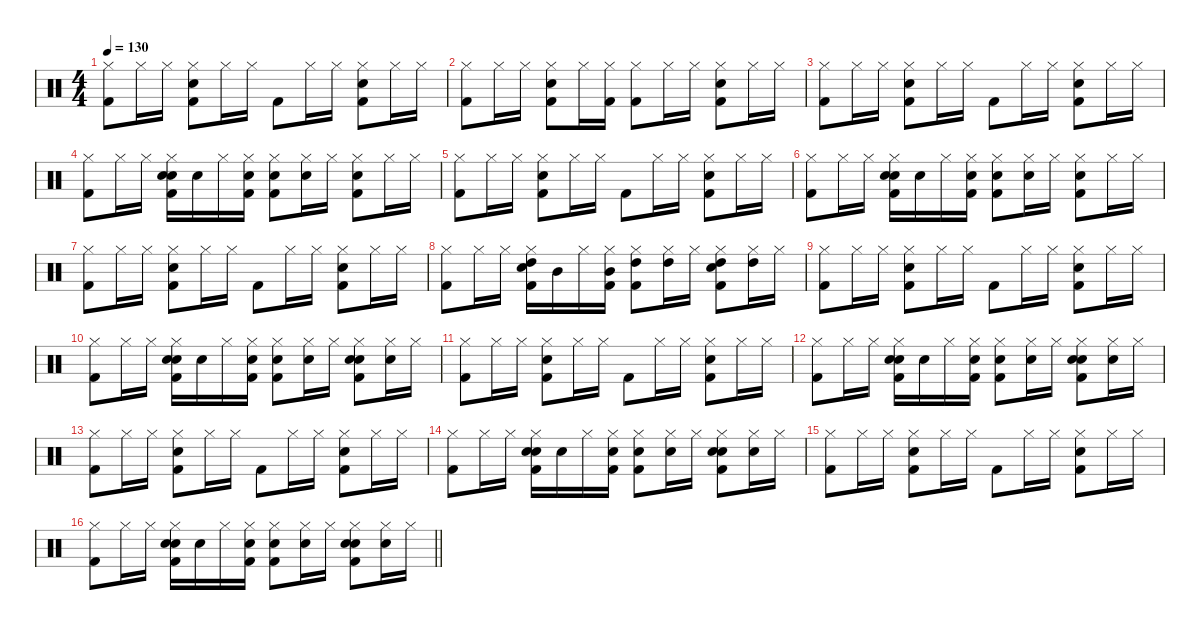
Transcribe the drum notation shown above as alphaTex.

\defaultSystemsLayout 4
\hideDynamics
\bracketExtendMode nobrackets
\singleTrackTrackNamePolicy hidden
\multiTrackTrackNamePolicy hidden
\otherSystemsTrackNameOrientation horizontal
\track ("Percussion" "drm.") {defaultSystemsLayout 4 instrument percussion}
\staff {score}
\articulation defaults
\ts (4 4)
\tempo 130
\clef neutral
\ks c
("Hi-Hat (closed)" "Kick (hit) 2").8{dy f beam Down} "Hi-Hat (closed)".16{beam Down} "Hi-Hat (closed)".16{beam Down} ("Hi-Hat (closed)" "Snare (hit) 2" "Kick (hit) 2").8{beam Down} "Hi-Hat (closed)".16{beam Down} "Hi-Hat (closed)".16{beam Down} "Kick (hit) 2".8{beam Down} "Hi-Hat (closed)".16{beam Down} "Hi-Hat (closed)".16{beam Down} ("Hi-Hat (closed)" "Snare (hit) 2" "Kick (hit) 2").8{beam Down} "Hi-Hat (closed)".16{beam Down} "Hi-Hat (closed)".16{beam Down} |
("Hi-Hat (closed)" "Kick (hit) 2").8{beam Down} "Hi-Hat (closed)".16{beam Down} "Hi-Hat (closed)".16{beam Down} ("Hi-Hat (closed)" "Snare (hit) 2" "Kick (hit) 2").8{beam Down} "Hi-Hat (closed)".16{beam Down} ("Hi-Hat (closed)" "Kick (hit) 2").16{beam Down} ("Hi-Hat (closed)" "Kick (hit) 2").8{beam Down} "Hi-Hat (closed)".16{beam Down} "Hi-Hat (closed)".16{beam Down} ("Hi-Hat (closed)" "Snare (hit) 2" "Kick (hit) 2").8{beam Down} "Hi-Hat (closed)".16{beam Down} "Hi-Hat (closed)".16{beam Down} |
("Hi-Hat (closed)" "Kick (hit) 2").8{beam Down} "Hi-Hat (closed)".16{beam Down} "Hi-Hat (closed)".16{beam Down} ("Hi-Hat (closed)" "Snare (hit) 2" "Kick (hit) 2").8{beam Down} "Hi-Hat (closed)".16{beam Down} "Hi-Hat (closed)".16{beam Down} "Kick (hit) 2".8{beam Down} "Hi-Hat (closed)".16{beam Down} "Hi-Hat (closed)".16{beam Down} ("Hi-Hat (closed)" "Snare (hit) 2" "Kick (hit) 2").8{beam Down} "Hi-Hat (closed)".16{beam Down} "Hi-Hat (closed)".16{beam Down} |
("Hi-Hat (closed)" "Kick (hit) 2").8{beam Down} "Hi-Hat (closed)".16{beam Down} "Hi-Hat (closed)".16{beam Down} ("Hi-Hat (closed)" "Hand Clap (hit)" "Snare (hit) 2" "Kick (hit) 2").16{beam Down} "Hand Clap (hit)".16{beam Down} "Hi-Hat (closed)".16{beam Down} ("Hi-Hat (closed)" "Hand Clap (hit)" "Kick (hit) 2").16{beam Down} ("Hi-Hat (closed)" "Hand Clap (hit)" "Kick (hit) 2").8{beam Down} ("Hi-Hat (closed)" "Hand Clap (hit)").16{beam Down} "Hi-Hat (closed)".16{beam Down} ("Hi-Hat (closed)" "Snare (hit) 2" "Kick (hit) 2").8{beam Down} "Hi-Hat (closed)".16{beam Down} "Hi-Hat (closed)".16{beam Down} |
("Hi-Hat (closed)" "Kick (hit) 2").8{beam Down} "Hi-Hat (closed)".16{beam Down} "Hi-Hat (closed)".16{beam Down} ("Hi-Hat (closed)" "Snare (hit) 2" "Kick (hit) 2").8{beam Down} "Hi-Hat (closed)".16{beam Down} "Hi-Hat (closed)".16{beam Down} "Kick (hit) 2".8{beam Down} "Hi-Hat (closed)".16{beam Down} "Hi-Hat (closed)".16{beam Down} ("Hi-Hat (closed)" "Snare (hit) 2" "Kick (hit) 2").8{beam Down} "Hi-Hat (closed)".16{beam Down} "Hi-Hat (closed)".16{beam Down} |
("Hi-Hat (closed)" "Kick (hit) 2").8{beam Down} "Hi-Hat (closed)".16{beam Down} "Hi-Hat (closed)".16{beam Down} ("Hi-Hat (closed)" "Hand Clap (hit)" "Snare (hit) 2" "Kick (hit) 2").16{beam Down} "Hand Clap (hit)".16{beam Down} "Hi-Hat (closed)".16{beam Down} ("Hi-Hat (closed)" "Hand Clap (hit)" "Kick (hit) 2").16{beam Down} ("Hi-Hat (closed)" "Hand Clap (hit)" "Kick (hit) 2").8{beam Down} ("Hi-Hat (closed)" "Hand Clap (hit)").16{beam Down} "Hi-Hat (closed)".16{beam Down} ("Hi-Hat (closed)" "Snare (hit) 2" "Kick (hit) 2").8{beam Down} "Hi-Hat (closed)".16{beam Down} "Hi-Hat (closed)".16{beam Down} |
("Hi-Hat (closed)" "Kick (hit) 2").8{beam Down} "Hi-Hat (closed)".16{beam Down} "Hi-Hat (closed)".16{beam Down} ("Hi-Hat (closed)" "Snare (hit) 2" "Kick (hit) 2").8{beam Down} "Hi-Hat (closed)".16{beam Down} "Hi-Hat (closed)".16{beam Down} "Kick (hit) 2".8{beam Down} "Hi-Hat (closed)".16{beam Down} "Hi-Hat (closed)".16{beam Down} ("Hi-Hat (closed)" "Snare (hit) 2" "Kick (hit) 2").8{beam Down} "Hi-Hat (closed)".16{beam Down} "Hi-Hat (closed)".16{beam Down} |
("Hi-Hat (closed)" "Kick (hit) 2").8{beam Down} "Hi-Hat (closed)".16{beam Down} "Hi-Hat (closed)".16{beam Down} ("Hi-Hat (closed)" "High Tom (hit)" "Snare (hit) 2" "Kick (hit) 2").16{beam Down} "Mid Tom (hit)".16{beam Down} "Hi-Hat (closed)".16{beam Down} ("Hi-Hat (closed)" "Mid Tom (hit)" "Kick (hit) 2").16{beam Down} ("Hi-Hat (closed)" "High Tom (hit)" "Kick (hit) 2").8{beam Down} ("Hi-Hat (closed)" "High Tom (hit)").16{beam Down} "Hi-Hat (closed)".16{beam Down} ("Hi-Hat (closed)" "High Tom (hit)" "Snare (hit) 2" "Kick (hit) 2").8{beam Down} ("Hi-Hat (closed)" "High Tom (hit)").16{beam Down} "Hi-Hat (closed)".16{beam Down} |
("Hi-Hat (closed)" "Kick (hit) 2").8{beam Down} "Hi-Hat (closed)".16{beam Down} "Hi-Hat (closed)".16{beam Down} ("Hi-Hat (closed)" "Snare (hit) 2" "Kick (hit) 2").8{beam Down} "Hi-Hat (closed)".16{beam Down} "Hi-Hat (closed)".16{beam Down} "Kick (hit) 2".8{beam Down} "Hi-Hat (closed)".16{beam Down} "Hi-Hat (closed)".16{beam Down} ("Hi-Hat (closed)" "Snare (hit) 2" "Kick (hit) 2").8{beam Down} "Hi-Hat (closed)".16{beam Down} "Hi-Hat (closed)".16{beam Down} |
("Hi-Hat (closed)" "Kick (hit) 2").8{beam Down} "Hi-Hat (closed)".16{beam Down} "Hi-Hat (closed)".16{beam Down} ("Hi-Hat (closed)" "Hand Clap (hit)" "Snare (hit) 2" "Kick (hit) 2").16{beam Down} "Hand Clap (hit)".16{beam Down} "Hi-Hat (closed)".16{beam Down} ("Hi-Hat (closed)" "Hand Clap (hit)" "Kick (hit) 2").16{beam Down} ("Hi-Hat (closed)" "Hand Clap (hit)" "Kick (hit) 2").8{beam Down} ("Hi-Hat (closed)" "Hand Clap (hit)").16{beam Down} "Hi-Hat (closed)".16{beam Down} ("Hi-Hat (closed)" "Hand Clap (hit)" "Snare (hit) 2" "Kick (hit) 2").8{beam Down} ("Hi-Hat (closed)" "Hand Clap (hit)").16{beam Down} "Hi-Hat (closed)".16{beam Down} |
("Hi-Hat (closed)" "Kick (hit) 2").8{beam Down} "Hi-Hat (closed)".16{beam Down} "Hi-Hat (closed)".16{beam Down} ("Hi-Hat (closed)" "Snare (hit) 2" "Kick (hit) 2").8{beam Down} "Hi-Hat (closed)".16{beam Down} "Hi-Hat (closed)".16{beam Down} "Kick (hit) 2".8{beam Down} "Hi-Hat (closed)".16{beam Down} "Hi-Hat (closed)".16{beam Down} ("Hi-Hat (closed)" "Snare (hit) 2" "Kick (hit) 2").8{beam Down} "Hi-Hat (closed)".16{beam Down} "Hi-Hat (closed)".16{beam Down} |
("Hi-Hat (closed)" "Kick (hit) 2").8{beam Down} "Hi-Hat (closed)".16{beam Down} "Hi-Hat (closed)".16{beam Down} ("Hi-Hat (closed)" "Hand Clap (hit)" "Snare (hit) 2" "Kick (hit) 2").16{beam Down} "Hand Clap (hit)".16{beam Down} "Hi-Hat (closed)".16{beam Down} ("Hi-Hat (closed)" "Hand Clap (hit)" "Kick (hit) 2").16{beam Down} ("Hi-Hat (closed)" "Hand Clap (hit)" "Kick (hit) 2").8{beam Down} ("Hi-Hat (closed)" "Hand Clap (hit)").16{beam Down} "Hi-Hat (closed)".16{beam Down} ("Hi-Hat (closed)" "Hand Clap (hit)" "Snare (hit) 2" "Kick (hit) 2").8{beam Down} ("Hi-Hat (closed)" "Hand Clap (hit)").16{beam Down} "Hi-Hat (closed)".16{beam Down} |
("Hi-Hat (closed)" "Kick (hit) 2").8{beam Down} "Hi-Hat (closed)".16{beam Down} "Hi-Hat (closed)".16{beam Down} ("Hi-Hat (closed)" "Snare (hit) 2" "Kick (hit) 2").8{beam Down} "Hi-Hat (closed)".16{beam Down} "Hi-Hat (closed)".16{beam Down} "Kick (hit) 2".8{beam Down} "Hi-Hat (closed)".16{beam Down} "Hi-Hat (closed)".16{beam Down} ("Hi-Hat (closed)" "Snare (hit) 2" "Kick (hit) 2").8{beam Down} "Hi-Hat (closed)".16{beam Down} "Hi-Hat (closed)".16{beam Down} |
("Hi-Hat (closed)" "Kick (hit) 2").8{beam Down} "Hi-Hat (closed)".16{beam Down} "Hi-Hat (closed)".16{beam Down} ("Hi-Hat (closed)" "Hand Clap (hit)" "Snare (hit) 2" "Kick (hit) 2").16{beam Down} "Hand Clap (hit)".16{beam Down} "Hi-Hat (closed)".16{beam Down} ("Hi-Hat (closed)" "Hand Clap (hit)" "Kick (hit) 2").16{beam Down} ("Hi-Hat (closed)" "Hand Clap (hit)" "Kick (hit) 2").8{beam Down} ("Hi-Hat (closed)" "Hand Clap (hit)").16{beam Down} "Hi-Hat (closed)".16{beam Down} ("Hi-Hat (closed)" "Hand Clap (hit)" "Snare (hit) 2" "Kick (hit) 2").8{beam Down} ("Hi-Hat (closed)" "Hand Clap (hit)").16{beam Down} "Hi-Hat (closed)".16{beam Down} |
("Hi-Hat (closed)" "Kick (hit) 2").8{beam Down} "Hi-Hat (closed)".16{beam Down} "Hi-Hat (closed)".16{beam Down} ("Hi-Hat (closed)" "Snare (hit) 2" "Kick (hit) 2").8{beam Down} "Hi-Hat (closed)".16{beam Down} "Hi-Hat (closed)".16{beam Down} "Kick (hit) 2".8{beam Down} "Hi-Hat (closed)".16{beam Down} "Hi-Hat (closed)".16{beam Down} ("Hi-Hat (closed)" "Snare (hit) 2" "Kick (hit) 2").8{beam Down} "Hi-Hat (closed)".16{beam Down} "Hi-Hat (closed)".16{beam Down} |
\barLineRight lightlight
("Hi-Hat (closed)" "Kick (hit) 2").8{beam Down} "Hi-Hat (closed)".16{beam Down} "Hi-Hat (closed)".16{beam Down} ("Hi-Hat (closed)" "Hand Clap (hit)" "Snare (hit) 2" "Kick (hit) 2").16{beam Down} "Hand Clap (hit)".16{beam Down} "Hi-Hat (closed)".16{beam Down} ("Hi-Hat (closed)" "Hand Clap (hit)" "Kick (hit) 2").16{beam Down} ("Hi-Hat (closed)" "Hand Clap (hit)" "Kick (hit) 2").8{beam Down} ("Hi-Hat (closed)" "Hand Clap (hit)").16{beam Down} "Hi-Hat (closed)".16{beam Down} ("Hi-Hat (closed)" "Hand Clap (hit)" "Snare (hit) 2" "Kick (hit) 2").8{beam Down} ("Hi-Hat (closed)" "Hand Clap (hit)").16{beam Down} "Hi-Hat (closed)".16{beam Down}
